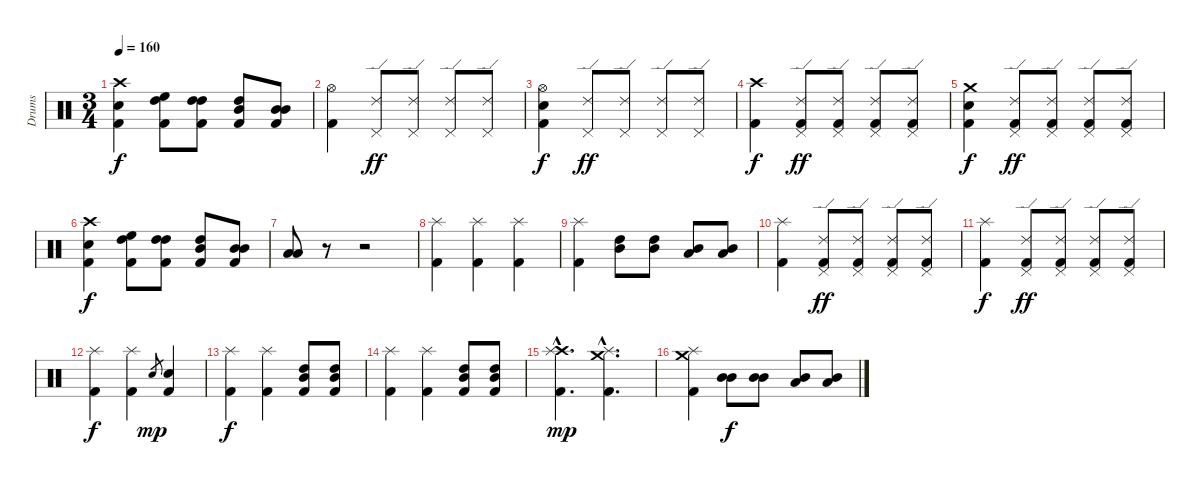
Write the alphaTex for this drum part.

\track ("Drums" "Drums") {instrument percussion}
\staff {score}
\articulation defaults
\ts (3 4)
\tempo 160
\clef neutral
\ks c
("Crash high (hit)" "Electric Snare (hit)" "Kick (hit) 2").4{dy f} ("High Tom (hit)" "High Floor Tom (hit)" "Kick (hit) 2").8 ("High Tom (hit)" "High Tom (hit)" "Kick (hit) 2").8 ("Mid Tom (hit)" "High Tom (hit)" "Kick (hit) 2").8 ("Mid Tom (hit)" "Mid Tom (hit)" "Kick (hit) 2").8 |
("Hi-Hat (open)" "Kick (hit) 2").4 ("Ride (edge) 2" "Pedal Hi-Hat (hit)").8{dy ff} ("Ride (edge) 2" "Pedal Hi-Hat (hit)").8 ("Ride (edge) 2" "Pedal Hi-Hat (hit)").8 ("Ride (edge) 2" "Pedal Hi-Hat (hit)").8 |
("Hi-Hat (open)" "Electric Snare (hit)" "Kick (hit) 2").4{dy f} ("Ride (edge) 2" "Pedal Hi-Hat (hit)").8{dy ff} ("Ride (edge) 2" "Pedal Hi-Hat (hit)").8 ("Ride (edge) 2" "Pedal Hi-Hat (hit)").8 ("Ride (edge) 2" "Pedal Hi-Hat (hit)").8 |
("Crash high (hit)" "Kick (hit) 2").4{dy f} ("Ride (edge) 2" "Pedal Hi-Hat (hit)" "Kick (hit) 2").8{dy ff} ("Ride (edge) 2" "Pedal Hi-Hat (hit)" "Kick (hit) 2").8 ("Ride (edge) 2" "Pedal Hi-Hat (hit)" "Kick (hit) 2").8 ("Ride (edge) 2" "Pedal Hi-Hat (hit)" "Kick (hit) 2").8 |
("Crash medium (hit)" "Electric Snare (hit)" "Kick (hit) 2").4{dy f} ("Ride (edge) 2" "Pedal Hi-Hat (hit)" "Kick (hit) 2").8{dy ff} ("Ride (edge) 2" "Pedal Hi-Hat (hit)" "Kick (hit) 2").8 ("Ride (edge) 2" "Pedal Hi-Hat (hit)" "Kick (hit) 2").8 ("Ride (edge) 2" "Pedal Hi-Hat (hit)" "Kick (hit) 2").8 |
("Crash high (hit)" "Electric Snare (hit)" "Kick (hit) 2").4{dy f} ("High Tom (hit)" "High Floor Tom (hit)" "Kick (hit) 2").8 ("High Tom (hit)" "High Tom (hit)" "Kick (hit) 2").8 ("Mid Tom (hit)" "High Tom (hit)" "Kick (hit) 2").8 ("Mid Tom (hit)" "Mid Tom (hit)" "Kick (hit) 2").8 |
("Low Tom (hit)" "Low Tom (hit)").8 r.8 r.2 |
("Splash (hit)" "Kick (hit) 2").4 ("Splash (hit)" "Kick (hit) 2").4 ("Splash (hit)" "Kick (hit) 2").4 |
("Splash (hit)" "Kick (hit) 2").4 ("High Tom (hit)" "Mid Tom (hit)").8 ("High Tom (hit)" "Mid Tom (hit)").8 ("Mid Tom (hit)" "Low Tom (hit)").8 ("Mid Tom (hit)" "Low Tom (hit)").8 |
("Splash (hit)" "Kick (hit) 2").4 ("Ride (edge) 2" "Pedal Hi-Hat (hit)" "Kick (hit) 2").8{dy ff} ("Ride (edge) 2" "Pedal Hi-Hat (hit)" "Kick (hit) 2").8 ("Ride (edge) 2" "Pedal Hi-Hat (hit)" "Kick (hit) 2").8 ("Ride (edge) 2" "Pedal Hi-Hat (hit)" "Kick (hit) 2").8 |
("Splash (hit)" "Kick (hit) 2").4{dy f} ("Ride (edge) 2" "Pedal Hi-Hat (hit)" "Kick (hit) 2").8{dy ff} ("Ride (edge) 2" "Pedal Hi-Hat (hit)" "Kick (hit) 2").8 ("Ride (edge) 2" "Pedal Hi-Hat (hit)" "Kick (hit) 2").8 ("Ride (edge) 2" "Pedal Hi-Hat (hit)" "Kick (hit) 2").8 |
("Splash (hit)" "Kick (hit) 2").4{dy f} ("Splash (hit)" "Kick (hit) 2").4 "Electric Snare (hit)".8{gr dy mp} ("Electric Snare (hit)" "Kick (hit) 2").4 |
("Splash (hit)" "Kick (hit) 2").4{dy f} ("Splash (hit)" "Kick (hit) 2").4 ("Mid Tom (hit)" "High Tom (hit)" "Kick (hit) 2").8 ("Mid Tom (hit)" "High Tom (hit)" "Kick (hit) 2").8 |
("Splash (hit)" "Kick (hit) 2").4 ("Splash (hit)" "Kick (hit) 2").4 ("Mid Tom (hit)" "High Tom (hit)" "Kick (hit) 2").8 ("Mid Tom (hit)" "High Tom (hit)" "Kick (hit) 2").8 |
("Crash high (hit)"{hac} "Splash (hit)"{hac} "Kick (hit) 2"{hac}).4{d dy mp} ("Crash medium (hit)"{hac} "Splash (hit)"{hac} "Kick (hit) 2"{hac}).4{d} |
("Crash medium (hit)" "Splash (hit)" "Kick (hit) 2").4 ("Mid Tom (hit)" "Mid Tom (hit)").8{dy f} ("Mid Tom (hit)" "Mid Tom (hit)").8 ("Mid Tom (hit)" "Low Tom (hit)").8 ("Mid Tom (hit)" "Low Tom (hit)").8
